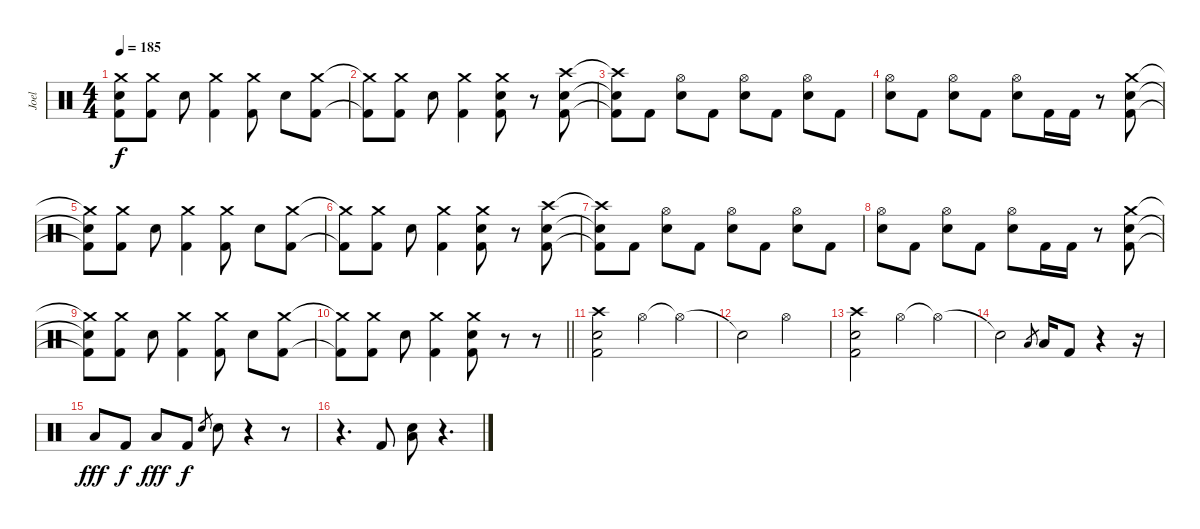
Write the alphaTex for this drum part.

\track ("Joel" "Joel") {instrument percussion}
\staff {score}
\articulation defaults
\ts (4 4)
\tempo 185
\clef neutral
\ks c
("Crash medium (hit)"{t} "Electric Snare (hit)"{t} "Kick (hit) 2"{t}).8{dy f} ("Crash medium (hit)" "Kick (hit) 2").8 "Electric Snare (hit)".8 ("Crash medium (hit)" "Kick (hit) 2").4 ("Crash medium (hit)" "Kick (hit) 2").8 "Electric Snare (hit)".8 ("Crash medium (hit)" "Kick (hit) 2").8 |
("Crash medium (hit)"{t} "Kick (hit) 2"{t}).8 ("Crash medium (hit)" "Kick (hit) 2").8 "Electric Snare (hit)".8 ("Crash medium (hit)" "Kick (hit) 2").4 ("Crash medium (hit)" "Electric Snare (hit)" "Kick (hit) 2").8 r.8 ("Crash high (hit)" "Electric Snare (hit)" "Kick (hit) 2").8 |
("Crash high (hit)"{t} "Electric Snare (hit)"{t} "Kick (hit) 2"{t}).8 "Kick (hit) 2".8 ("Hi-Hat (open)" "Electric Snare (hit)").8 "Kick (hit) 2".8 ("Hi-Hat (open)" "Electric Snare (hit)").8 "Kick (hit) 2".8 ("Hi-Hat (open)" "Electric Snare (hit)").8 "Kick (hit) 2".8 |
("Hi-Hat (open)" "Electric Snare (hit)").8 "Kick (hit) 2".8 ("Hi-Hat (open)" "Electric Snare (hit)").8 "Kick (hit) 2".8 ("Hi-Hat (open)" "Electric Snare (hit)").8 "Kick (hit) 2".16 "Kick (hit) 2".16 r.8 ("Crash medium (hit)" "Electric Snare (hit)" "Kick (hit) 2").8 |
("Crash medium (hit)"{t} "Electric Snare (hit)"{t} "Kick (hit) 2"{t}).8 ("Crash medium (hit)" "Kick (hit) 2").8 "Electric Snare (hit)".8 ("Crash medium (hit)" "Kick (hit) 2").4 ("Crash medium (hit)" "Kick (hit) 2").8 "Electric Snare (hit)".8 ("Crash medium (hit)" "Kick (hit) 2").8 |
("Crash medium (hit)"{t} "Kick (hit) 2"{t}).8 ("Crash medium (hit)" "Kick (hit) 2").8 "Electric Snare (hit)".8 ("Crash medium (hit)" "Kick (hit) 2").4 ("Crash medium (hit)" "Electric Snare (hit)" "Kick (hit) 2").8 r.8 ("Crash high (hit)" "Electric Snare (hit)" "Kick (hit) 2").8 |
("Crash high (hit)"{t} "Electric Snare (hit)"{t} "Kick (hit) 2"{t}).8 "Kick (hit) 2".8 ("Hi-Hat (open)" "Electric Snare (hit)").8 "Kick (hit) 2".8 ("Hi-Hat (open)" "Electric Snare (hit)").8 "Kick (hit) 2".8 ("Hi-Hat (open)" "Electric Snare (hit)").8 "Kick (hit) 2".8 |
("Hi-Hat (open)" "Electric Snare (hit)").8 "Kick (hit) 2".8 ("Hi-Hat (open)" "Electric Snare (hit)").8 "Kick (hit) 2".8 ("Hi-Hat (open)" "Electric Snare (hit)").8 "Kick (hit) 2".16 "Kick (hit) 2".16 r.8 ("Crash medium (hit)" "Electric Snare (hit)" "Kick (hit) 2").8 |
("Crash medium (hit)"{t} "Electric Snare (hit)"{t} "Kick (hit) 2"{t}).8 ("Crash medium (hit)" "Kick (hit) 2").8 "Electric Snare (hit)".8 ("Crash medium (hit)" "Kick (hit) 2").4 ("Crash medium (hit)" "Kick (hit) 2").8 "Electric Snare (hit)".8 ("Crash medium (hit)" "Kick (hit) 2").8 |
\barLineRight lightlight
("Crash medium (hit)"{t} "Kick (hit) 2"{t}).8 ("Crash medium (hit)" "Kick (hit) 2").8 "Electric Snare (hit)".8 ("Crash medium (hit)" "Kick (hit) 2").4 ("Crash medium (hit)" "Electric Snare (hit)" "Kick (hit) 2").8 r.8 r.8 |
\section ("" "")
("Crash high (hit)" "Electric Snare (hit)" "Kick (hit) 2").2 "Hi-Hat (open)".4 "Hi-Hat (open)"{t}.4 |
"Snare (hit)"{t}.2 "Hi-Hat (open)".2 |
("Crash high (hit)" "Electric Snare (hit)" "Kick (hit) 2").2 "Hi-Hat (open)".4 "Hi-Hat (open)"{t}.4 |
"Snare (hit)"{t}.2 "Low Floor Tom (hit)".8{gr} "Low Floor Tom (hit)".16 "Kick (hit) 2".8 r.4 r.16 |
"Low Floor Tom (hit)".8{dy fff} "Kick (hit) 2".8{dy f} "Low Floor Tom (hit)".8{dy fff} "Kick (hit) 2".8{dy f} "Electric Snare (hit)".8{gr} "Electric Snare (hit)".8 r.4 r.8 |
r.4{d} "Kick (hit) 2".8 ("Low Floor Tom (hit)" "Electric Snare (hit)").8 r.4{d}
